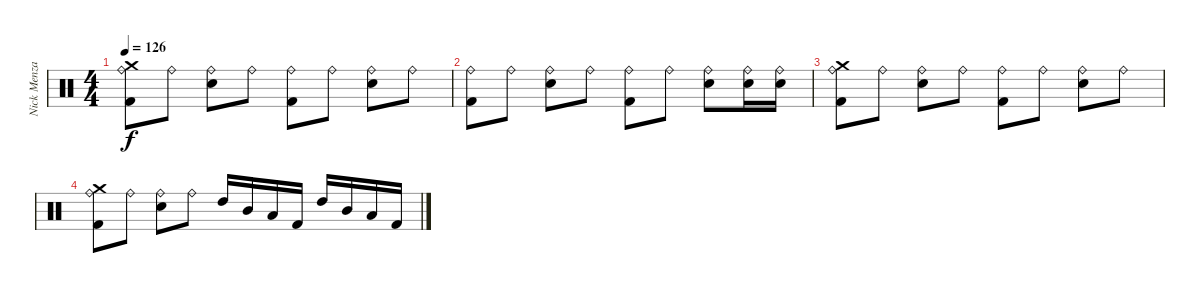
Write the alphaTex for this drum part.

\track ("Nick Menza" "Nick Menza") {instrument percussion}
\staff {score}
\articulation defaults
\ts (4 4)
\tempo 126
\clef neutral
\ks c
("Crash medium (hit)" "Ride (bell)" "Kick (hit) 2").8{dy f} "Ride (bell)".8 ("Electric Snare (hit)" "Ride (bell)").8 "Ride (bell)".8 ("Ride (bell)" "Kick (hit) 2").8 "Ride (bell)".8 ("Electric Snare (hit)" "Ride (bell)").8 "Ride (bell)".8 |
("Ride (bell)" "Kick (hit) 2").8 "Ride (bell)".8 ("Electric Snare (hit)" "Ride (bell)").8 "Ride (bell)".8 ("Ride (bell)" "Kick (hit) 2").8 "Ride (bell)".8 ("Electric Snare (hit)" "Ride (bell)").8 ("Electric Snare (hit)" "Ride (bell)").16 ("Electric Snare (hit)" "Ride (bell)").16 |
("Crash medium (hit)" "Ride (bell)" "Kick (hit) 2").8 "Ride (bell)".8 ("Electric Snare (hit)" "Ride (bell)").8 "Ride (bell)".8 ("Ride (bell)" "Kick (hit) 2").8 "Ride (bell)".8 ("Electric Snare (hit)" "Ride (bell)").8 "Ride (bell)".8 |
("Crash medium (hit)" "Ride (bell)" "Kick (hit) 2").8 "Ride (bell)".8 ("Electric Snare (hit)" "Ride (bell)").8 "Ride (bell)".8 "High Tom (hit)".16 "Mid Tom (hit)".16 "Low Tom (hit)".16 "Kick (hit) 2".16 "High Tom (hit)".16 "Mid Tom (hit)".16 "Low Tom (hit)".16 "Kick (hit) 2".16
